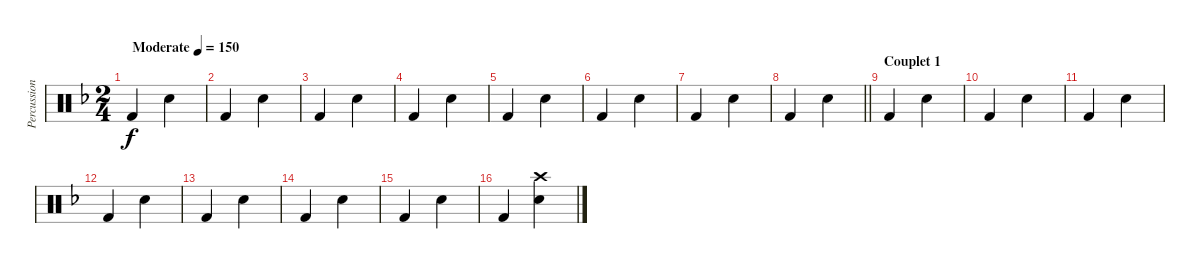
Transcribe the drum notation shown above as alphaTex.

\track ("Percussions" "Percussion") {instrument percussion}
\staff {score}
\articulation defaults
\ts (2 4)
\tempo (150 "Moderate")
\clef neutral
\ks f "Kick (hit) 2".4{dy f} "Snare (hit) 2".4
|
"Kick (hit) 2".4 "Snare (hit) 2".4 |
"Kick (hit) 2".4 "Snare (hit) 2".4 |
"Kick (hit) 2".4 "Snare (hit) 2".4 |
"Kick (hit) 2".4 "Snare (hit) 2".4 |
"Kick (hit) 2".4 "Snare (hit) 2".4 |
"Kick (hit) 2".4 "Snare (hit) 2".4 |
\barLineRight lightlight "Kick (hit) 2".4 "Snare (hit) 2".4
|
\section ("" "Couplet 1")
"Kick (hit) 2".4 "Snare (hit) 2".4 |
"Kick (hit) 2".4 "Snare (hit) 2".4 |
"Kick (hit) 2".4 "Snare (hit) 2".4 |
"Kick (hit) 2".4 "Snare (hit) 2".4 |
"Kick (hit) 2".4 "Snare (hit) 2".4 |
"Kick (hit) 2".4 "Snare (hit) 2".4 |
"Kick (hit) 2".4 "Snare (hit) 2".4 |
"Kick (hit) 2".4 ("Crash high (hit)" "Snare (hit) 2").4
